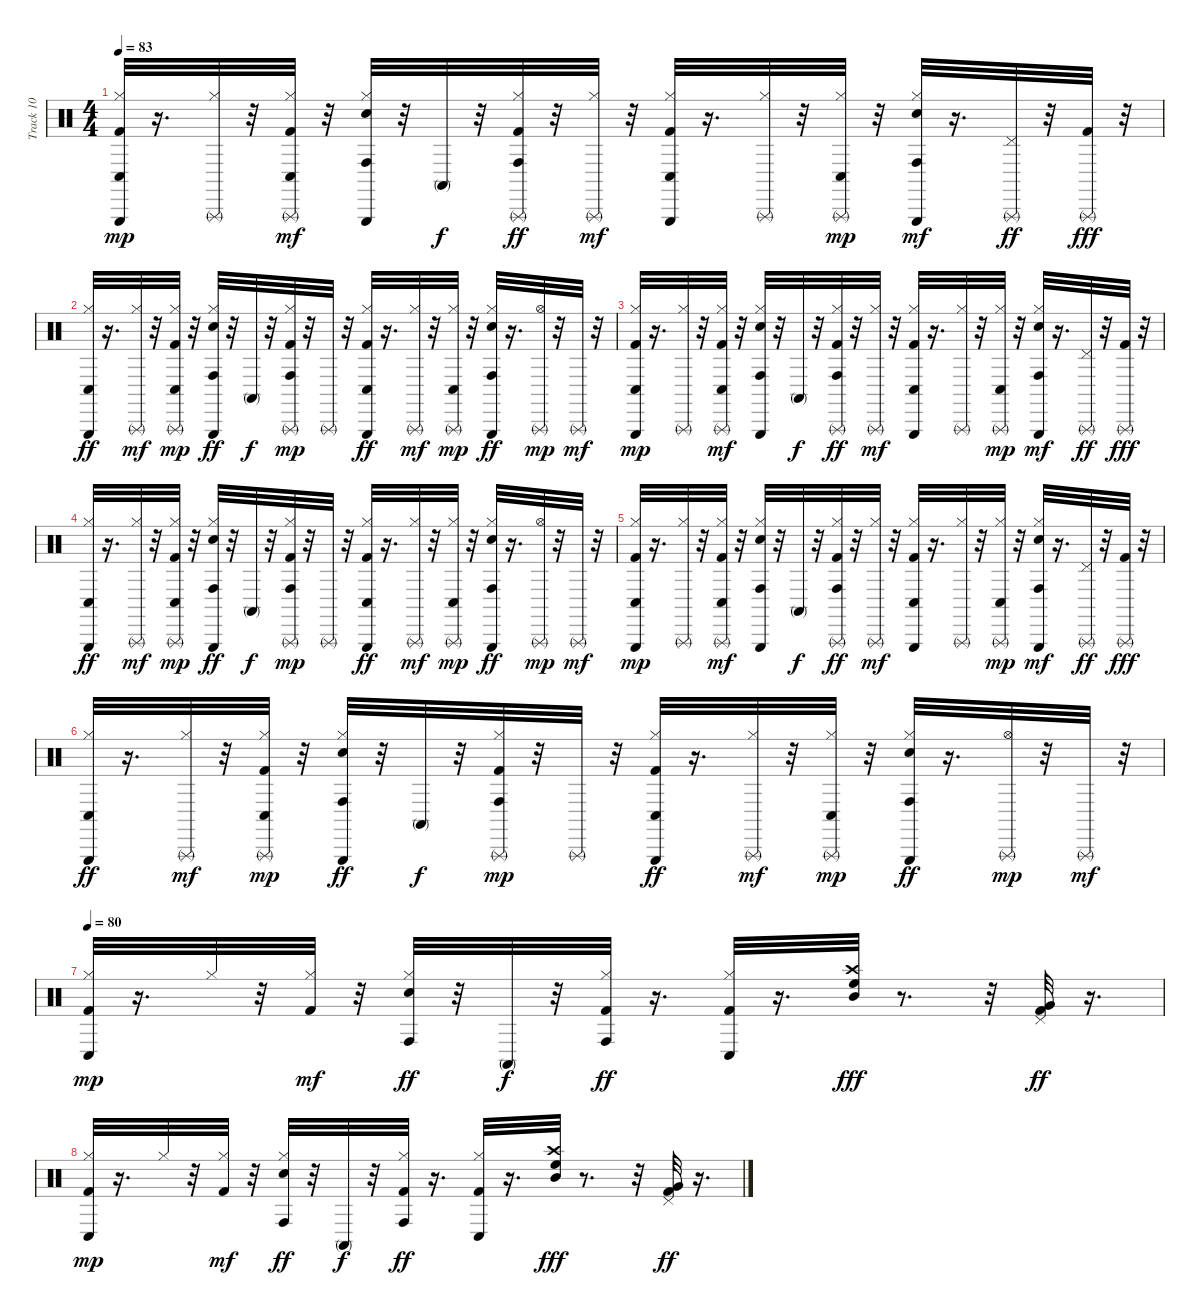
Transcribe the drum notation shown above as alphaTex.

\track ("Track 10" "Track 10") {instrument percussion}
\staff {score}
\articulation defaults
\ts (4 4)
\tempo 83
\clef neutral
\ks c
("Hi-Hat (closed)" "Kick (hit) 2" "Conga low (hit)" "Triangle (hit)").32{dy mp} r.16{d} ("Triangle (rnute)" "Hi-Hat (closed)").32 r.32 ("Triangle (rnute)" "Conga low (hit)" "Kick (hit) 2" "Hi-Hat (closed)").32{dy mf} r.32 ("Conga high (hit)" "Snare (hit) 2" "Hi-Hat (closed)" "Triangle (hit)").32 r.32 "Conga high (mute)".32{dy f} r.32 ("Triangle (rnute)" "Conga high (hit)" "Kick (hit) 2" "Hi-Hat (closed)").32{dy ff} r.32 ("Triangle (rnute)" "Hi-Hat (closed)").32{dy mf} r.32 ("Conga low (hit)" "Kick (hit) 2" "Hi-Hat (closed)" "Triangle (hit)").32 r.16{d} ("Triangle (rnute)" "Hi-Hat (closed)").32 r.32 ("Conga low (hit)" "Hi-Hat (closed)" "Triangle (rnute)").32{dy mp} r.32 ("Conga high (hit)" "Snare (hit) 2" "Hi-Hat (closed)" "Triangle (hit)").32{dy mf} r.16{d} ("Triangle (rnute)" "Pedal Hi-Hat (hit)").32{dy ff} r.32 ("Triangle (rnute)" "Kick (hit) 2").32{dy fff} r.32 |
("Triangle (hit)" "Conga low (hit)" "Hi-Hat (closed)").32{dy ff} r.16{d} ("Triangle (rnute)" "Hi-Hat (closed)").32{dy mf} r.32 ("Conga low (hit)" "Kick (hit) 2" "Hi-Hat (closed)" "Triangle (rnute)").32{dy mp} r.32 ("Triangle (hit)" "Conga high (hit)" "Snare (hit) 2" "Hi-Hat (closed)").32{dy ff} r.32 "Conga high (mute)".32{dy f} r.32 ("Hi-Hat (closed)" "Conga high (hit)" "Kick (hit) 2" "Triangle (rnute)").32{dy mp} r.32 "Triangle (rnute)".32 r.32 ("Triangle (hit)" "Conga low (hit)" "Kick (hit) 2" "Hi-Hat (closed)").32{dy ff} r.16{d} ("Hi-Hat (closed)" "Triangle (rnute)").32{dy mf} r.32 ("Conga low (hit)" "Hi-Hat (closed)" "Triangle (rnute)").32{dy mp} r.32 ("Triangle (hit)" "Conga high (hit)" "Snare (hit) 2" "Hi-Hat (closed)").32{dy ff} r.16{d} ("Triangle (rnute)" "Hi-Hat (open)").32{dy mp} r.32 "Triangle (rnute)".32{dy mf} r.32 |
("Hi-Hat (closed)" "Kick (hit) 2" "Conga low (hit)" "Triangle (hit)").32{dy mp} r.16{d} ("Triangle (rnute)" "Hi-Hat (closed)").32 r.32 ("Triangle (rnute)" "Conga low (hit)" "Kick (hit) 2" "Hi-Hat (closed)").32{dy mf} r.32 ("Conga high (hit)" "Snare (hit) 2" "Hi-Hat (closed)" "Triangle (hit)").32 r.32 "Conga high (mute)".32{dy f} r.32 ("Triangle (rnute)" "Conga high (hit)" "Kick (hit) 2" "Hi-Hat (closed)").32{dy ff} r.32 ("Triangle (rnute)" "Hi-Hat (closed)").32{dy mf} r.32 ("Conga low (hit)" "Kick (hit) 2" "Hi-Hat (closed)" "Triangle (hit)").32 r.16{d} ("Triangle (rnute)" "Hi-Hat (closed)").32 r.32 ("Conga low (hit)" "Hi-Hat (closed)" "Triangle (rnute)").32{dy mp} r.32 ("Conga high (hit)" "Snare (hit) 2" "Hi-Hat (closed)" "Triangle (hit)").32{dy mf} r.16{d} ("Triangle (rnute)" "Pedal Hi-Hat (hit)").32{dy ff} r.32 ("Triangle (rnute)" "Kick (hit) 2").32{dy fff} r.32 |
("Triangle (hit)" "Conga low (hit)" "Hi-Hat (closed)").32{dy ff} r.16{d} ("Triangle (rnute)" "Hi-Hat (closed)").32{dy mf} r.32 ("Conga low (hit)" "Kick (hit) 2" "Hi-Hat (closed)" "Triangle (rnute)").32{dy mp} r.32 ("Triangle (hit)" "Conga high (hit)" "Snare (hit) 2" "Hi-Hat (closed)").32{dy ff} r.32 "Conga high (mute)".32{dy f} r.32 ("Hi-Hat (closed)" "Conga high (hit)" "Kick (hit) 2" "Triangle (rnute)").32{dy mp} r.32 "Triangle (rnute)".32 r.32 ("Triangle (hit)" "Conga low (hit)" "Kick (hit) 2" "Hi-Hat (closed)").32{dy ff} r.16{d} ("Hi-Hat (closed)" "Triangle (rnute)").32{dy mf} r.32 ("Conga low (hit)" "Hi-Hat (closed)" "Triangle (rnute)").32{dy mp} r.32 ("Triangle (hit)" "Conga high (hit)" "Snare (hit) 2" "Hi-Hat (closed)").32{dy ff} r.16{d} ("Triangle (rnute)" "Hi-Hat (open)").32{dy mp} r.32 "Triangle (rnute)".32{dy mf} r.32 |
("Hi-Hat (closed)" "Kick (hit) 2" "Conga low (hit)" "Triangle (hit)").32{dy mp} r.16{d} ("Triangle (rnute)" "Hi-Hat (closed)").32 r.32 ("Triangle (rnute)" "Conga low (hit)" "Kick (hit) 2" "Hi-Hat (closed)").32{dy mf} r.32 ("Conga high (hit)" "Snare (hit) 2" "Hi-Hat (closed)" "Triangle (hit)").32 r.32 "Conga high (mute)".32{dy f} r.32 ("Triangle (rnute)" "Conga high (hit)" "Kick (hit) 2" "Hi-Hat (closed)").32{dy ff} r.32 ("Triangle (rnute)" "Hi-Hat (closed)").32{dy mf} r.32 ("Conga low (hit)" "Kick (hit) 2" "Hi-Hat (closed)" "Triangle (hit)").32 r.16{d} ("Triangle (rnute)" "Hi-Hat (closed)").32 r.32 ("Conga low (hit)" "Hi-Hat (closed)" "Triangle (rnute)").32{dy mp} r.32 ("Conga high (hit)" "Snare (hit) 2" "Hi-Hat (closed)" "Triangle (hit)").32{dy mf} r.16{d} ("Triangle (rnute)" "Pedal Hi-Hat (hit)").32{dy ff} r.32 ("Triangle (rnute)" "Kick (hit) 2").32{dy fff} r.32 |
("Triangle (hit)" "Conga low (hit)" "Hi-Hat (closed)").32{dy ff} r.16{d} ("Triangle (rnute)" "Hi-Hat (closed)").32{dy mf} r.32 ("Conga low (hit)" "Kick (hit) 2" "Hi-Hat (closed)" "Triangle (rnute)").32{dy mp} r.32 ("Triangle (hit)" "Conga high (hit)" "Snare (hit) 2" "Hi-Hat (closed)").32{dy ff} r.32 "Conga high (mute)".32{dy f} r.32 ("Hi-Hat (closed)" "Conga high (hit)" "Kick (hit) 2" "Triangle (rnute)").32{dy mp} r.32 "Triangle (rnute)".32 r.32 ("Triangle (hit)" "Conga low (hit)" "Kick (hit) 2" "Hi-Hat (closed)").32{dy ff} r.16{d} ("Hi-Hat (closed)" "Triangle (rnute)").32{dy mf} r.32 ("Conga low (hit)" "Hi-Hat (closed)" "Triangle (rnute)").32{dy mp} r.32 ("Triangle (hit)" "Conga high (hit)" "Snare (hit) 2" "Hi-Hat (closed)").32{dy ff} r.16{d} ("Triangle (rnute)" "Hi-Hat (open)").32{dy mp} r.32 "Triangle (rnute)".32{dy mf} r.32 |
\tempo 80
("Hi-Hat (closed)" "Kick (hit) 2" "Conga low (hit)").32{dy mp} r.16{d} "Hi-Hat (closed)".32 r.32 ("Kick (hit) 2" "Hi-Hat (closed)").32{dy mf} r.32 ("Conga high (hit)" "Snare (hit) 2" "Hi-Hat (closed)").32{dy ff} r.32 "Conga high (mute)".32{dy f} r.32 ("Conga high (hit)" "Kick (hit) 2" "Hi-Hat (closed)").32{dy ff} r.16{d} ("Conga low (hit)" "Kick (hit) 2" "Hi-Hat (closed)").32 r.16{d} ("High Floor Tom (hit)" "Crash high (hit)" "Mid Tom (hit)").32{dy fff} r.8{d} r.32 ("Kick (hit) 2" "Very Low Tom (hit)" "Pedal Hi-Hat (hit)").32{dy ff} r.16{d} |
("Hi-Hat (closed)" "Kick (hit) 2" "Conga low (hit)").32{dy mp} r.16{d} "Hi-Hat (closed)".32 r.32 ("Kick (hit) 2" "Hi-Hat (closed)").32{dy mf} r.32 ("Conga high (hit)" "Snare (hit) 2" "Hi-Hat (closed)").32{dy ff} r.32 "Conga high (mute)".32{dy f} r.32 ("Conga high (hit)" "Kick (hit) 2" "Hi-Hat (closed)").32{dy ff} r.16{d} ("Conga low (hit)" "Kick (hit) 2" "Hi-Hat (closed)").32 r.16{d} ("High Floor Tom (hit)" "Crash high (hit)" "Mid Tom (hit)").32{dy fff} r.8{d} r.32 ("Kick (hit) 2" "Very Low Tom (hit)" "Pedal Hi-Hat (hit)").32{dy ff} r.16{d}
